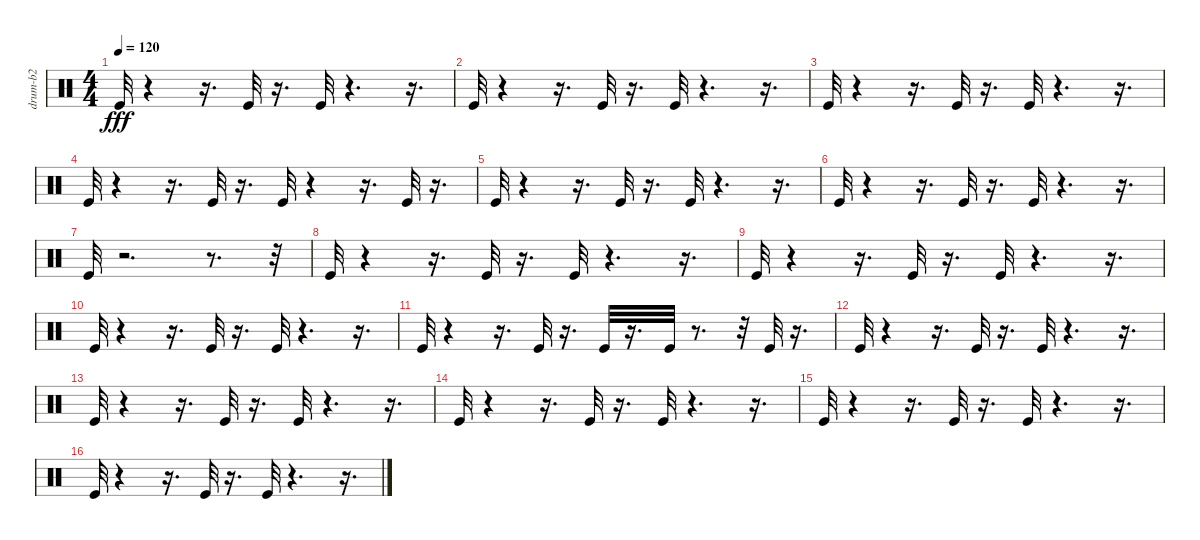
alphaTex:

\track ("drum-b2" "drum-b2") {instrument percussion}
\staff {score}
\articulation defaults
\ts (4 4)
\tempo 120
\clef neutral
\ks c "Kick (hit)".32{dy fff}
r.4 r.16{d} "Kick (hit)".32 r.16{d} "Kick (hit)".32 r.4{d} r.16{d} |
"Kick (hit)".32 r.4 r.16{d} "Kick (hit)".32 r.16{d} "Kick (hit)".32 r.4{d} r.16{d} |
"Kick (hit)".32 r.4 r.16{d} "Kick (hit)".32 r.16{d} "Kick (hit)".32 r.4{d} r.16{d} |
"Kick (hit)".32 r.4 r.16{d} "Kick (hit)".32 r.16{d} "Kick (hit)".32 r.4 r.16{d} "Kick (hit)".32 r.16{d} |
"Kick (hit)".32 r.4 r.16{d} "Kick (hit)".32 r.16{d} "Kick (hit)".32 r.4{d} r.16{d} |
"Kick (hit)".32 r.4 r.16{d} "Kick (hit)".32 r.16{d} "Kick (hit)".32 r.4{d} r.16{d} |
"Kick (hit)".32 r.2{d} r.8{d} r.32 |
"Kick (hit)".32 r.4 r.16{d} "Kick (hit)".32 r.16{d} "Kick (hit)".32 r.4{d} r.16{d} |
"Kick (hit)".32 r.4 r.16{d} "Kick (hit)".32 r.16{d} "Kick (hit)".32 r.4{d} r.16{d} |
"Kick (hit)".32 r.4 r.16{d} "Kick (hit)".32 r.16{d} "Kick (hit)".32 r.4{d} r.16{d} |
"Kick (hit)".32 r.4 r.16{d} "Kick (hit)".32 r.16{d} "Kick (hit)".32 r.16{d} "Kick (hit)".32 r.8{d} r.32 "Kick (hit)".32 r.16{d} |
"Kick (hit)".32 r.4 r.16{d} "Kick (hit)".32 r.16{d} "Kick (hit)".32 r.4{d} r.16{d} |
"Kick (hit)".32 r.4 r.16{d} "Kick (hit)".32 r.16{d} "Kick (hit)".32 r.4{d} r.16{d} |
"Kick (hit)".32 r.4 r.16{d} "Kick (hit)".32 r.16{d} "Kick (hit)".32 r.4{d} r.16{d} |
"Kick (hit)".32 r.4 r.16{d} "Kick (hit)".32 r.16{d} "Kick (hit)".32 r.4{d} r.16{d} |
"Kick (hit)".32 r.4 r.16{d} "Kick (hit)".32 r.16{d} "Kick (hit)".32 r.4{d} r.16{d}
